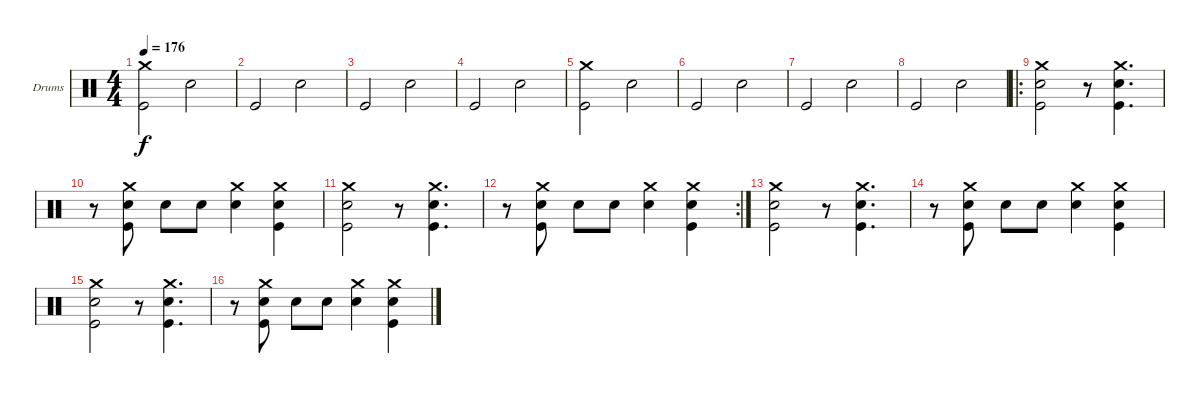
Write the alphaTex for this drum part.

\bracketExtendMode groupsimilarinstruments
\firstSystemTrackNameOrientation horizontal
\otherSystemsTrackNameOrientation horizontal
\track ("Drumkit" "Drums") {instrument percussion}
\staff {score}
\articulation defaults
\ts (4 4)
\tempo 176
\clef neutral
\ks c
("Crash medium (hit)" "Kick (hit)").2{dy f} "Snare (hit) 2".2 |
"Kick (hit)".2 "Snare (hit) 2".2 |
"Kick (hit)".2 "Snare (hit) 2".2 |
"Kick (hit)".2 "Snare (hit) 2".2 |
("Crash medium (hit)" "Kick (hit)").2 "Snare (hit) 2".2 |
"Kick (hit)".2 "Snare (hit) 2".2 |
"Kick (hit)".2 "Snare (hit) 2".2 |
"Kick (hit)".2 "Snare (hit) 2".2 |
\ro
("Crash medium (hit)" "Snare (hit) 2" "Kick (hit)").2 r.8 ("Crash medium (hit)" "Snare (hit) 2" "Kick (hit)").4{d} |
r.8 ("Crash medium (hit)" "Snare (hit) 2" "Kick (hit)").8 "Snare (hit) 2".8 "Snare (hit) 2".8 ("Crash medium (hit)" "Snare (hit) 2").4 ("Crash medium (hit)" "Snare (hit) 2" "Kick (hit)").4 |
("Crash medium (hit)" "Snare (hit) 2" "Kick (hit)").2 r.8 ("Crash medium (hit)" "Snare (hit) 2" "Kick (hit)").4{d} |
\rc 2
r.8 ("Crash medium (hit)" "Snare (hit) 2" "Kick (hit)").8 "Snare (hit) 2".8 "Snare (hit) 2".8 ("Crash medium (hit)" "Snare (hit) 2").4 ("Crash medium (hit)" "Snare (hit) 2" "Kick (hit)").4 |
("Crash medium (hit)" "Snare (hit) 2" "Kick (hit)").2 r.8 ("Crash medium (hit)" "Snare (hit) 2" "Kick (hit)").4{d} |
r.8 ("Crash medium (hit)" "Snare (hit) 2" "Kick (hit)").8 "Snare (hit) 2".8 "Snare (hit) 2".8 ("Crash medium (hit)" "Snare (hit) 2").4 ("Crash medium (hit)" "Snare (hit) 2" "Kick (hit)").4 |
("Crash medium (hit)" "Snare (hit) 2" "Kick (hit)").2 r.8 ("Crash medium (hit)" "Snare (hit) 2" "Kick (hit)").4{d} |
r.8 ("Crash medium (hit)" "Snare (hit) 2" "Kick (hit)").8 "Snare (hit) 2".8 "Snare (hit) 2".8 ("Crash medium (hit)" "Snare (hit) 2").4 ("Crash medium (hit)" "Snare (hit) 2" "Kick (hit)").4
